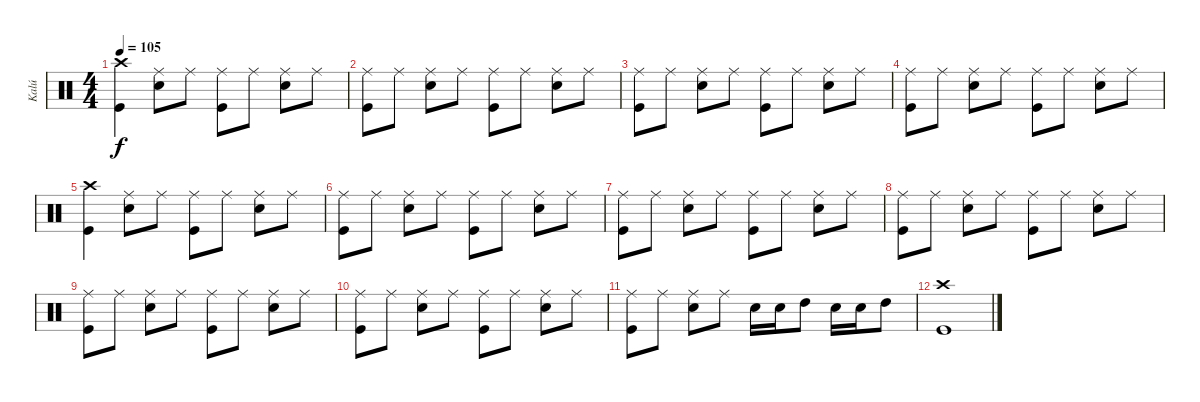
\track ("Kalú" "Kalú") {instrument percussion}
\staff {score}
\articulation defaults
\ts (4 4)
\tempo 105
\clef neutral
\ks c
("Crash high (hit)" "Kick (hit)").4{dy f} ("Ride (middle)" "Electric Snare (hit)").8 "Ride (middle)".8 ("Ride (middle)" "Kick (hit)").8 "Ride (middle)".8 ("Ride (middle)" "Electric Snare (hit)").8 "Ride (middle)".8 |
("Ride (middle)" "Kick (hit)").8 "Ride (middle)".8 ("Ride (middle)" "Electric Snare (hit)").8 "Ride (middle)".8 ("Ride (middle)" "Kick (hit)").8 "Ride (middle)".8 ("Ride (middle)" "Electric Snare (hit)").8 "Ride (middle)".8 |
("Ride (middle)" "Kick (hit)").8 "Ride (middle)".8 ("Ride (middle)" "Electric Snare (hit)").8 "Ride (middle)".8 ("Ride (middle)" "Kick (hit)").8 "Ride (middle)".8 ("Ride (middle)" "Electric Snare (hit)").8 "Ride (middle)".8 |
("Ride (middle)" "Kick (hit)").8 "Ride (middle)".8 ("Ride (middle)" "Electric Snare (hit)").8 "Ride (middle)".8 ("Ride (middle)" "Kick (hit)").8 "Ride (middle)".8 ("Ride (middle)" "Electric Snare (hit)").8 "Ride (middle)".8 |
("Crash high (hit)" "Kick (hit)").4 ("Ride (middle)" "Electric Snare (hit)").8 "Ride (middle)".8 ("Ride (middle)" "Kick (hit)").8 "Ride (middle)".8 ("Ride (middle)" "Electric Snare (hit)").8 "Ride (middle)".8 |
("Ride (middle)" "Kick (hit)").8 "Ride (middle)".8 ("Ride (middle)" "Electric Snare (hit)").8 "Ride (middle)".8 ("Ride (middle)" "Kick (hit)").8 "Ride (middle)".8 ("Ride (middle)" "Electric Snare (hit)").8 "Ride (middle)".8 |
("Ride (middle)" "Kick (hit)").8 "Ride (middle)".8 ("Ride (middle)" "Electric Snare (hit)").8 "Ride (middle)".8 ("Ride (middle)" "Kick (hit)").8 "Ride (middle)".8 ("Ride (middle)" "Electric Snare (hit)").8 "Ride (middle)".8 |
("Ride (middle)" "Kick (hit)").8 "Ride (middle)".8 ("Ride (middle)" "Electric Snare (hit)").8 "Ride (middle)".8 ("Ride (middle)" "Kick (hit)").8 "Ride (middle)".8 ("Ride (middle)" "Electric Snare (hit)").8 "Ride (middle)".8 |
("Ride (middle)" "Kick (hit)").8 "Ride (middle)".8 ("Ride (middle)" "Electric Snare (hit)").8 "Ride (middle)".8 ("Ride (middle)" "Kick (hit)").8 "Ride (middle)".8 ("Ride (middle)" "Electric Snare (hit)").8 "Ride (middle)".8 |
("Ride (middle)" "Kick (hit)").8 "Ride (middle)".8 ("Ride (middle)" "Electric Snare (hit)").8 "Ride (middle)".8 ("Ride (middle)" "Kick (hit)").8 "Ride (middle)".8 ("Ride (middle)" "Electric Snare (hit)").8 "Ride (middle)".8 |
("Ride (middle)" "Kick (hit)").8 "Ride (middle)".8 ("Ride (middle)" "Electric Snare (hit)").8 "Ride (middle)".8 "Electric Snare (hit)".16 "Electric Snare (hit)".16 "High Tom (hit)".8 "Electric Snare (hit)".16 "Electric Snare (hit)".16 "High Tom (hit)".8 |
("Crash high (hit)" "Kick (hit)").1
